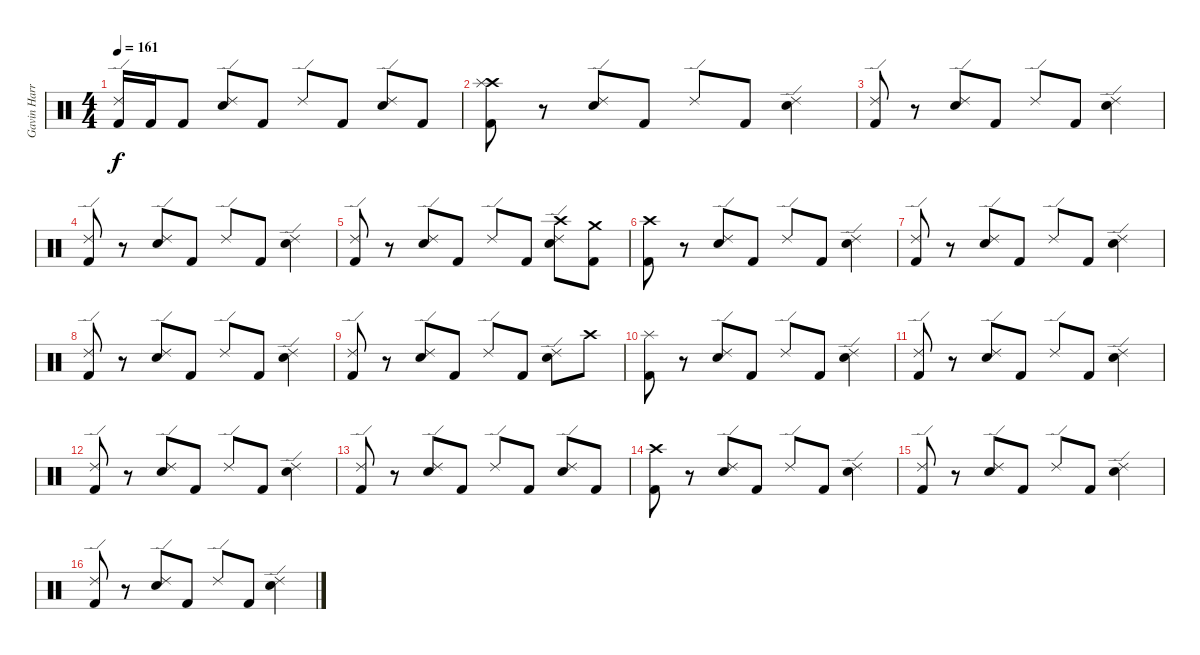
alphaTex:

\track ("Gavin Harrison (Drums)" "Gavin Harr") {instrument percussion}
\staff {score}
\articulation defaults
\ts (4 4)
\tempo 161
\clef neutral
\ks c
("Ride (edge) 2" "Kick (hit) 2").16{dy f} "Kick (hit) 2".16 "Kick (hit) 2".8 ("Ride (edge) 2" "Electric Snare (hit)").8 "Kick (hit) 2".8 "Ride (edge) 2".8 "Kick (hit) 2".8 ("Ride (edge) 2" "Electric Snare (hit)").8 "Kick (hit) 2".8 |
("Crash high (hit)" "Splash (hit)" "Kick (hit) 2").8 r.8 ("Ride (edge) 2" "Electric Snare (hit)").8 "Kick (hit) 2".8 "Ride (edge) 2".8 "Kick (hit) 2".8 ("Ride (edge) 2" "Electric Snare (hit)").4 |
("Ride (edge) 2" "Kick (hit) 2").8 r.8 ("Ride (edge) 2" "Electric Snare (hit)").8 "Kick (hit) 2".8 "Ride (edge) 2".8 "Kick (hit) 2".8 ("Ride (edge) 2" "Electric Snare (hit)").4 |
("Ride (edge) 2" "Kick (hit) 2").8 r.8 ("Ride (edge) 2" "Electric Snare (hit)").8 "Kick (hit) 2".8 "Ride (edge) 2".8 "Kick (hit) 2".8 ("Ride (edge) 2" "Electric Snare (hit)").4 |
("Ride (edge) 2" "Kick (hit) 2").8 r.8 ("Ride (edge) 2" "Electric Snare (hit)").8 "Kick (hit) 2".8 "Ride (edge) 2".8 "Kick (hit) 2".8 ("Crash high (hit)" "Ride (edge) 2" "Electric Snare (hit)").8 ("Crash medium (hit)" "Kick (hit) 2").8 |
("Crash high (hit)" "Kick (hit) 2").8 r.8 ("Ride (edge) 2" "Electric Snare (hit)").8 "Kick (hit) 2".8 "Ride (edge) 2".8 "Kick (hit) 2".8 ("Ride (edge) 2" "Electric Snare (hit)").4 |
("Ride (edge) 2" "Kick (hit) 2").8 r.8 ("Ride (edge) 2" "Electric Snare (hit)").8 "Kick (hit) 2".8 "Ride (edge) 2".8 "Kick (hit) 2".8 ("Ride (edge) 2" "Electric Snare (hit)").4 |
("Ride (edge) 2" "Kick (hit) 2").8 r.8 ("Ride (edge) 2" "Electric Snare (hit)").8 "Kick (hit) 2".8 "Ride (edge) 2".8 "Kick (hit) 2".8 ("Ride (edge) 2" "Electric Snare (hit)").4 |
("Ride (edge) 2" "Kick (hit) 2").8 r.8 ("Ride (edge) 2" "Electric Snare (hit)").8 "Kick (hit) 2".8 "Ride (edge) 2".8 "Kick (hit) 2".8 ("Ride (edge) 2" "Electric Snare (hit)").8 "Crash high (hit)".8 |
("Splash (hit)" "Kick (hit) 2").8 r.8 ("Ride (edge) 2" "Electric Snare (hit)").8 "Kick (hit) 2".8 "Ride (edge) 2".8 "Kick (hit) 2".8 ("Ride (edge) 2" "Electric Snare (hit)").4 |
("Ride (edge) 2" "Kick (hit) 2").8 r.8 ("Ride (edge) 2" "Electric Snare (hit)").8 "Kick (hit) 2".8 "Ride (edge) 2".8 "Kick (hit) 2".8 ("Ride (edge) 2" "Electric Snare (hit)").4 |
("Ride (edge) 2" "Kick (hit) 2").8 r.8 ("Ride (edge) 2" "Electric Snare (hit)").8 "Kick (hit) 2".8 "Ride (edge) 2".8 "Kick (hit) 2".8 ("Ride (edge) 2" "Electric Snare (hit)").4 |
("Ride (edge) 2" "Kick (hit) 2").8 r.8 ("Ride (edge) 2" "Electric Snare (hit)").8 "Kick (hit) 2".8 "Ride (edge) 2".8 "Kick (hit) 2".8 ("Ride (edge) 2" "Electric Snare (hit)").8 "Kick (hit) 2".8 |
("Crash high (hit)" "Kick (hit) 2").8 r.8 ("Ride (edge) 2" "Electric Snare (hit)").8 "Kick (hit) 2".8 "Ride (edge) 2".8 "Kick (hit) 2".8 ("Ride (edge) 2" "Electric Snare (hit)").4 |
("Ride (edge) 2" "Kick (hit) 2").8 r.8 ("Ride (edge) 2" "Electric Snare (hit)").8 "Kick (hit) 2".8 "Ride (edge) 2".8 "Kick (hit) 2".8 ("Ride (edge) 2" "Electric Snare (hit)").4 |
("Ride (edge) 2" "Kick (hit) 2").8 r.8 ("Ride (edge) 2" "Electric Snare (hit)").8 "Kick (hit) 2".8 "Ride (edge) 2".8 "Kick (hit) 2".8 ("Ride (edge) 2" "Electric Snare (hit)").4
